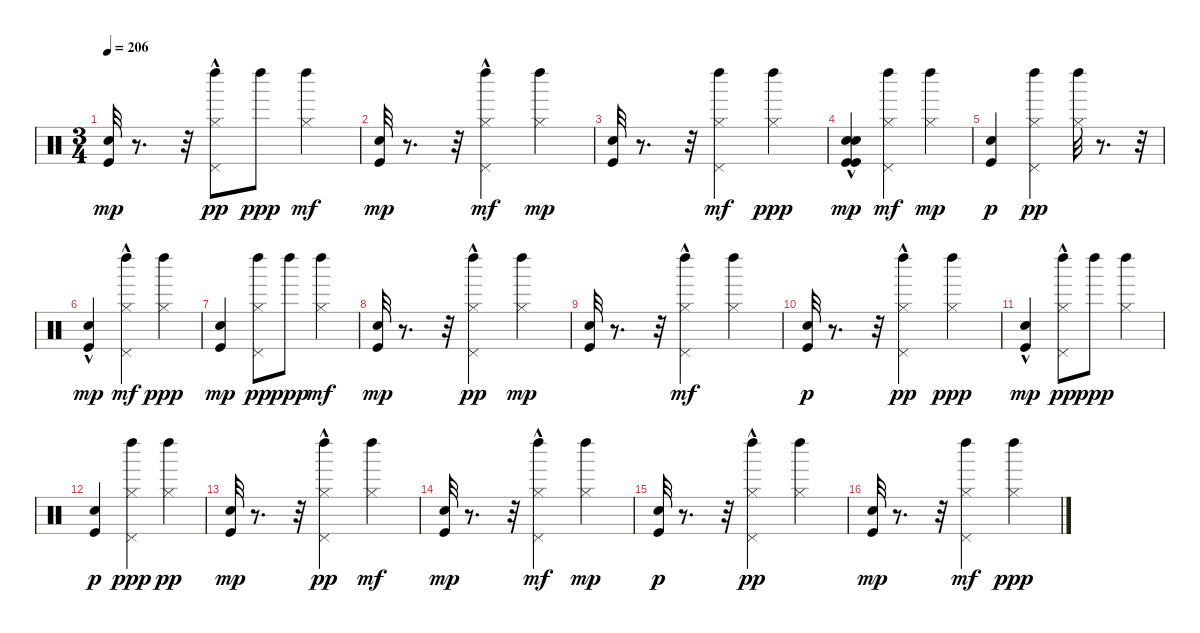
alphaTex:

\track "" {instrument percussion}
\staff {score}
\articulation defaults
\ts (3 4)
\tempo 206
\clef neutral
\ks c
("Kick (hit)" "Snare (hit)").32{dy mp} r.8{d} r.32 ("Pedal Hi-Hat (hit)"{hac} "Hi-Hat (closed)" "Left Maraca (hit)").8{dy pp} "Left Maraca (hit)".8{dy ppp} ("Left Maraca (hit)" "Hi-Hat (closed)").4{dy mf} |
("Kick (hit)" "Snare (hit)").32{dy mp} r.8{d} r.32 ("Pedal Hi-Hat (hit)"{hac} "Left Maraca (hit)" "Hi-Hat (closed)").4{dy mf} ("Left Maraca (hit)" "Hi-Hat (closed)").4{dy mp} |
("Kick (hit)" "Snare (hit)").32 r.8{d} r.32 ("Pedal Hi-Hat (hit)" "Left Maraca (hit)" "Hi-Hat (closed)").4{dy mf} ("Hi-Hat (closed)" "Left Maraca (hit)").4{dy ppp} |
("Kick (hit)"{hac} "Snare (hit)"{hac} "Kick (hit)"{hac} "Snare (hit)"{hac}).4{dy mp} ("Pedal Hi-Hat (hit)" "Left Maraca (hit)" "Hi-Hat (closed)").4{dy mf} ("Left Maraca (hit)" "Hi-Hat (closed)").4{dy mp} |
("Snare (hit)" "Kick (hit)").4{dy p} ("Hi-Hat (closed)" "Left Maraca (hit)" "Pedal Hi-Hat (hit)").4{dy pp} ("Hi-Hat (closed)" "Left Maraca (hit)").32 r.8{d} r.32 |
("Kick (hit)" "Snare (hit)"{hac}).4{dy mp} ("Pedal Hi-Hat (hit)"{hac} "Left Maraca (hit)" "Hi-Hat (closed)").4{dy mf} ("Hi-Hat (closed)" "Left Maraca (hit)").4{dy ppp} |
("Kick (hit)" "Snare (hit)").4{dy mp} ("Pedal Hi-Hat (hit)" "Hi-Hat (closed)" "Left Maraca (hit)").8{dy pp} "Left Maraca (hit)".8{dy ppp} ("Left Maraca (hit)" "Hi-Hat (closed)").4{dy mf} |
("Kick (hit)" "Snare (hit)").32{dy mp} r.8{d} r.32 ("Left Maraca (hit)" "Hi-Hat (closed)" "Pedal Hi-Hat (hit)"{hac}).4{dy pp} ("Left Maraca (hit)" "Hi-Hat (closed)").4{dy mp} |
("Kick (hit)" "Snare (hit)").32 r.8{d} r.32 ("Pedal Hi-Hat (hit)"{hac} "Left Maraca (hit)" "Hi-Hat (closed)").4{dy mf} ("Left Maraca (hit)" "Hi-Hat (closed)").4 |
("Snare (hit)" "Kick (hit)").32{dy p} r.8{d} r.32 ("Hi-Hat (closed)" "Left Maraca (hit)" "Pedal Hi-Hat (hit)"{hac}).4{dy pp} ("Hi-Hat (closed)" "Left Maraca (hit)").4{dy ppp} |
("Kick (hit)"{hac} "Snare (hit)"{hac}).4{dy mp} ("Pedal Hi-Hat (hit)"{hac} "Hi-Hat (closed)" "Left Maraca (hit)").8{dy pp} "Left Maraca (hit)".8{dy ppp} ("Hi-Hat (closed)" "Left Maraca (hit)").4 |
("Snare (hit)" "Kick (hit)").4{dy p} ("Pedal Hi-Hat (hit)" "Hi-Hat (closed)" "Left Maraca (hit)").4{dy ppp} ("Hi-Hat (closed)" "Left Maraca (hit)").4{dy pp} |
("Kick (hit)" "Snare (hit)").32{dy mp} r.8{d} r.32 ("Left Maraca (hit)" "Hi-Hat (closed)" "Pedal Hi-Hat (hit)"{hac}).4{dy pp} ("Left Maraca (hit)" "Hi-Hat (closed)").4{dy mf} |
("Kick (hit)" "Snare (hit)").32{dy mp} r.8{d} r.32 ("Pedal Hi-Hat (hit)"{hac} "Left Maraca (hit)" "Hi-Hat (closed)").4{dy mf} ("Left Maraca (hit)" "Hi-Hat (closed)").4{dy mp} |
("Snare (hit)" "Kick (hit)").32{dy p} r.8{d} r.32 ("Hi-Hat (closed)" "Left Maraca (hit)" "Pedal Hi-Hat (hit)"{hac}).4{dy pp} ("Hi-Hat (closed)" "Left Maraca (hit)").4 |
("Kick (hit)" "Snare (hit)").32{dy mp} r.8{d} r.32 ("Pedal Hi-Hat (hit)" "Left Maraca (hit)" "Hi-Hat (closed)").4{dy mf} ("Hi-Hat (closed)" "Left Maraca (hit)").4{dy ppp}
